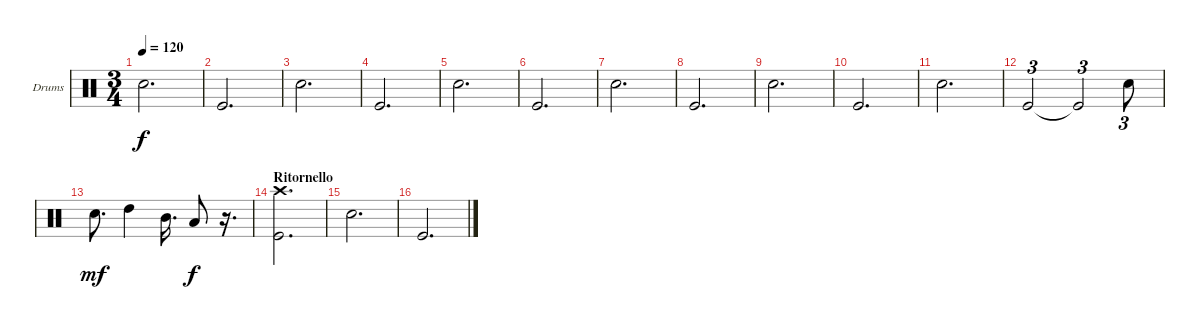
\bracketExtendMode groupsimilarinstruments
\firstSystemTrackNameOrientation horizontal
\otherSystemsTrackNameOrientation horizontal
\track ("Drumkit" "Drums") {instrument percussion}
\staff {score}
\articulation defaults
\ts (3 4)
\tempo 120
\clef neutral
\ks c "Snare (hit) 2".2{d dy f}
|
"Kick (hit)".2{d} |
"Snare (hit) 2".2{d} |
"Kick (hit)".2{d} |
"Snare (hit) 2".2{d} |
"Kick (hit)".2{d} |
"Snare (hit) 2".2{d} |
"Kick (hit)".2{d} |
"Snare (hit) 2".2{d} |
"Kick (hit)".2{d} |
"Snare (hit) 2".2{d} |
"Kick (hit)".2{tu (3 2)} "Kick (hit)"{t}.2{tu (3 2)} "Snare (hit) 2".8{tu (3 2)} |
"Snare (hit) 2".8{d dy mf} "High Tom (hit)".4 "Mid Tom (hit)".16{d} "Low Tom (hit)".8{dy f} r.16{d} |
\section ("" "Ritornello")
("Crash high (hit)" "Kick (hit)").2{d} |
"Snare (hit) 2".2{d} |
"Kick (hit)".2{d}
